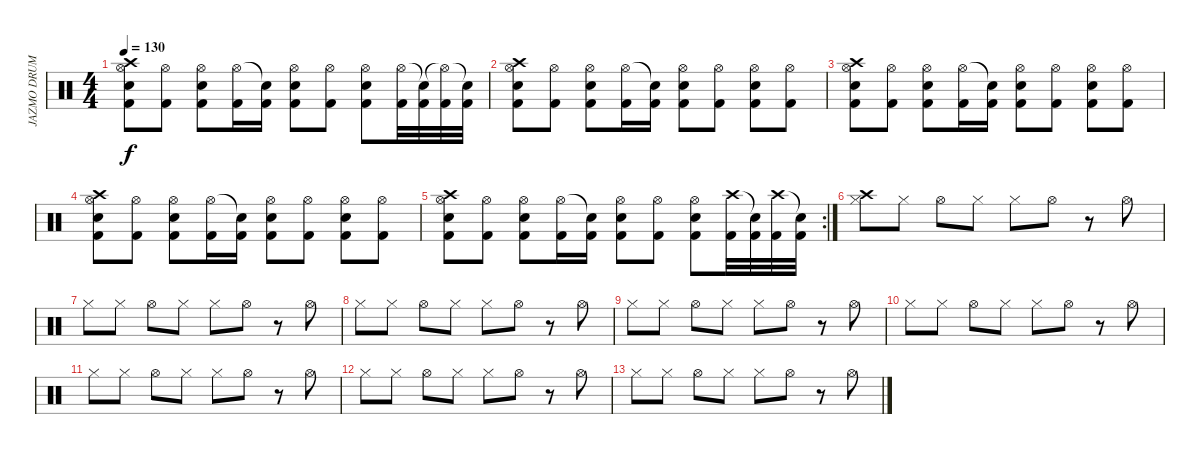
\track ("JAZMO DRUMS" "JAZMO DRUM") {instrument percussion}
\staff {score}
\articulation defaults
\ts (4 4)
\tempo 130
\clef neutral
\ks c
("Crash high (hit)" "Hi-Hat (open)" "Snare (hit) 2" "Kick (hit) 2").8{dy f} ("Hi-Hat (open)" "Kick (hit) 2").8 ("Hi-Hat (open)" "Snare (hit) 2" "Kick (hit) 2").8 ("Hi-Hat (open)" "Kick (hit) 2").16 ("Snare (hit)"{t} "Kick (hit) 2").16 ("Hi-Hat (open)" "Snare (hit) 2" "Kick (hit) 2").8 ("Hi-Hat (open)" "Kick (hit) 2").8 ("Hi-Hat (open)" "Snare (hit) 2" "Kick (hit) 2").8 ("Hi-Hat (open)" "Kick (hit) 2").32 ("Snare (hit)"{t} "Kick (hit) 2").32 ("Hi-Hat (open)"{t} "Kick (hit) 2").32 ("Snare (hit)"{t} "Kick (hit) 2").32 |
("Crash high (hit)" "Hi-Hat (open)" "Snare (hit) 2" "Kick (hit) 2").8 ("Hi-Hat (open)" "Kick (hit) 2").8 ("Hi-Hat (open)" "Snare (hit) 2" "Kick (hit) 2").8 ("Hi-Hat (open)" "Kick (hit) 2").16 ("Snare (hit)"{t} "Kick (hit) 2").16 ("Hi-Hat (open)" "Snare (hit) 2" "Kick (hit) 2").8 ("Hi-Hat (open)" "Kick (hit) 2").8 ("Hi-Hat (open)" "Snare (hit) 2" "Kick (hit) 2").8 ("Hi-Hat (open)" "Kick (hit) 2").8 |
("Crash high (hit)" "Hi-Hat (open)" "Snare (hit) 2" "Kick (hit) 2").8 ("Hi-Hat (open)" "Kick (hit) 2").8 ("Hi-Hat (open)" "Snare (hit) 2" "Kick (hit) 2").8 ("Hi-Hat (open)" "Kick (hit) 2").16 ("Snare (hit)"{t} "Kick (hit) 2").16 ("Hi-Hat (open)" "Snare (hit) 2" "Kick (hit) 2").8 ("Hi-Hat (open)" "Kick (hit) 2").8 ("Hi-Hat (open)" "Snare (hit) 2" "Kick (hit) 2").8 ("Hi-Hat (open)" "Kick (hit) 2").8 |
("Crash high (hit)" "Hi-Hat (open)" "Snare (hit) 2" "Kick (hit) 2").8 ("Hi-Hat (open)" "Kick (hit) 2").8 ("Hi-Hat (open)" "Snare (hit) 2" "Kick (hit) 2").8 ("Hi-Hat (open)" "Kick (hit) 2").16 ("Snare (hit)"{t} "Kick (hit) 2").16 ("Hi-Hat (open)" "Snare (hit) 2" "Kick (hit) 2").8 ("Hi-Hat (open)" "Kick (hit) 2").8 ("Hi-Hat (open)" "Snare (hit) 2" "Kick (hit) 2").8 ("Hi-Hat (open)" "Kick (hit) 2").8 |
\rc 2
("Crash high (hit)" "Hi-Hat (open)" "Snare (hit) 2" "Kick (hit) 2").8 ("Hi-Hat (open)" "Kick (hit) 2").8 ("Hi-Hat (open)" "Snare (hit) 2" "Kick (hit) 2").8 ("Hi-Hat (open)" "Kick (hit) 2").16 ("Snare (hit)"{t} "Kick (hit) 2").16 ("Hi-Hat (open)" "Snare (hit) 2" "Kick (hit) 2").8 ("Hi-Hat (open)" "Kick (hit) 2").8 ("Hi-Hat (open)" "Snare (hit) 2" "Kick (hit) 2").8 ("Crash high (hit)" "Kick (hit) 2").32 ("Snare (hit)"{t} "Kick (hit) 2").32 ("Crash high (hit)" "Kick (hit) 2").32 ("Snare (hit)"{t} "Kick (hit) 2").32 |
("Crash high (hit)" "Hi-Hat (closed)").8 "Hi-Hat (closed)".8 "Hi-Hat (open)".8 "Hi-Hat (closed)".8 "Hi-Hat (closed)".8 "Hi-Hat (open)".8 r.8 "Hi-Hat (open)".8 |
"Hi-Hat (closed)".8 "Hi-Hat (closed)".8 "Hi-Hat (open)".8 "Hi-Hat (closed)".8 "Hi-Hat (closed)".8 "Hi-Hat (open)".8 r.8 "Hi-Hat (open)".8 |
"Hi-Hat (closed)".8{volume 14} "Hi-Hat (closed)".8 "Hi-Hat (open)".8 "Hi-Hat (closed)".8 "Hi-Hat (closed)".8 "Hi-Hat (open)".8 r.8 "Hi-Hat (open)".8 |
"Hi-Hat (closed)".8 "Hi-Hat (closed)".8 "Hi-Hat (open)".8 "Hi-Hat (closed)".8 "Hi-Hat (closed)".8 "Hi-Hat (open)".8 r.8 "Hi-Hat (open)".8 |
"Hi-Hat (closed)".8{volume 10} "Hi-Hat (closed)".8 "Hi-Hat (open)".8 "Hi-Hat (closed)".8 "Hi-Hat (closed)".8 "Hi-Hat (open)".8 r.8 "Hi-Hat (open)".8 |
"Hi-Hat (closed)".8 "Hi-Hat (closed)".8 "Hi-Hat (open)".8 "Hi-Hat (closed)".8 "Hi-Hat (closed)".8 "Hi-Hat (open)".8 r.8 "Hi-Hat (open)".8 |
"Hi-Hat (closed)".8{volume 5} "Hi-Hat (closed)".8 "Hi-Hat (open)".8 "Hi-Hat (closed)".8 "Hi-Hat (closed)".8 "Hi-Hat (open)".8 r.8 "Hi-Hat (open)".8 |
"Hi-Hat (closed)".8{volume 0} "Hi-Hat (closed)".8 "Hi-Hat (open)".8 "Hi-Hat (closed)".8 "Hi-Hat (closed)".8 "Hi-Hat (open)".8 r.8 "Hi-Hat (open)".8
